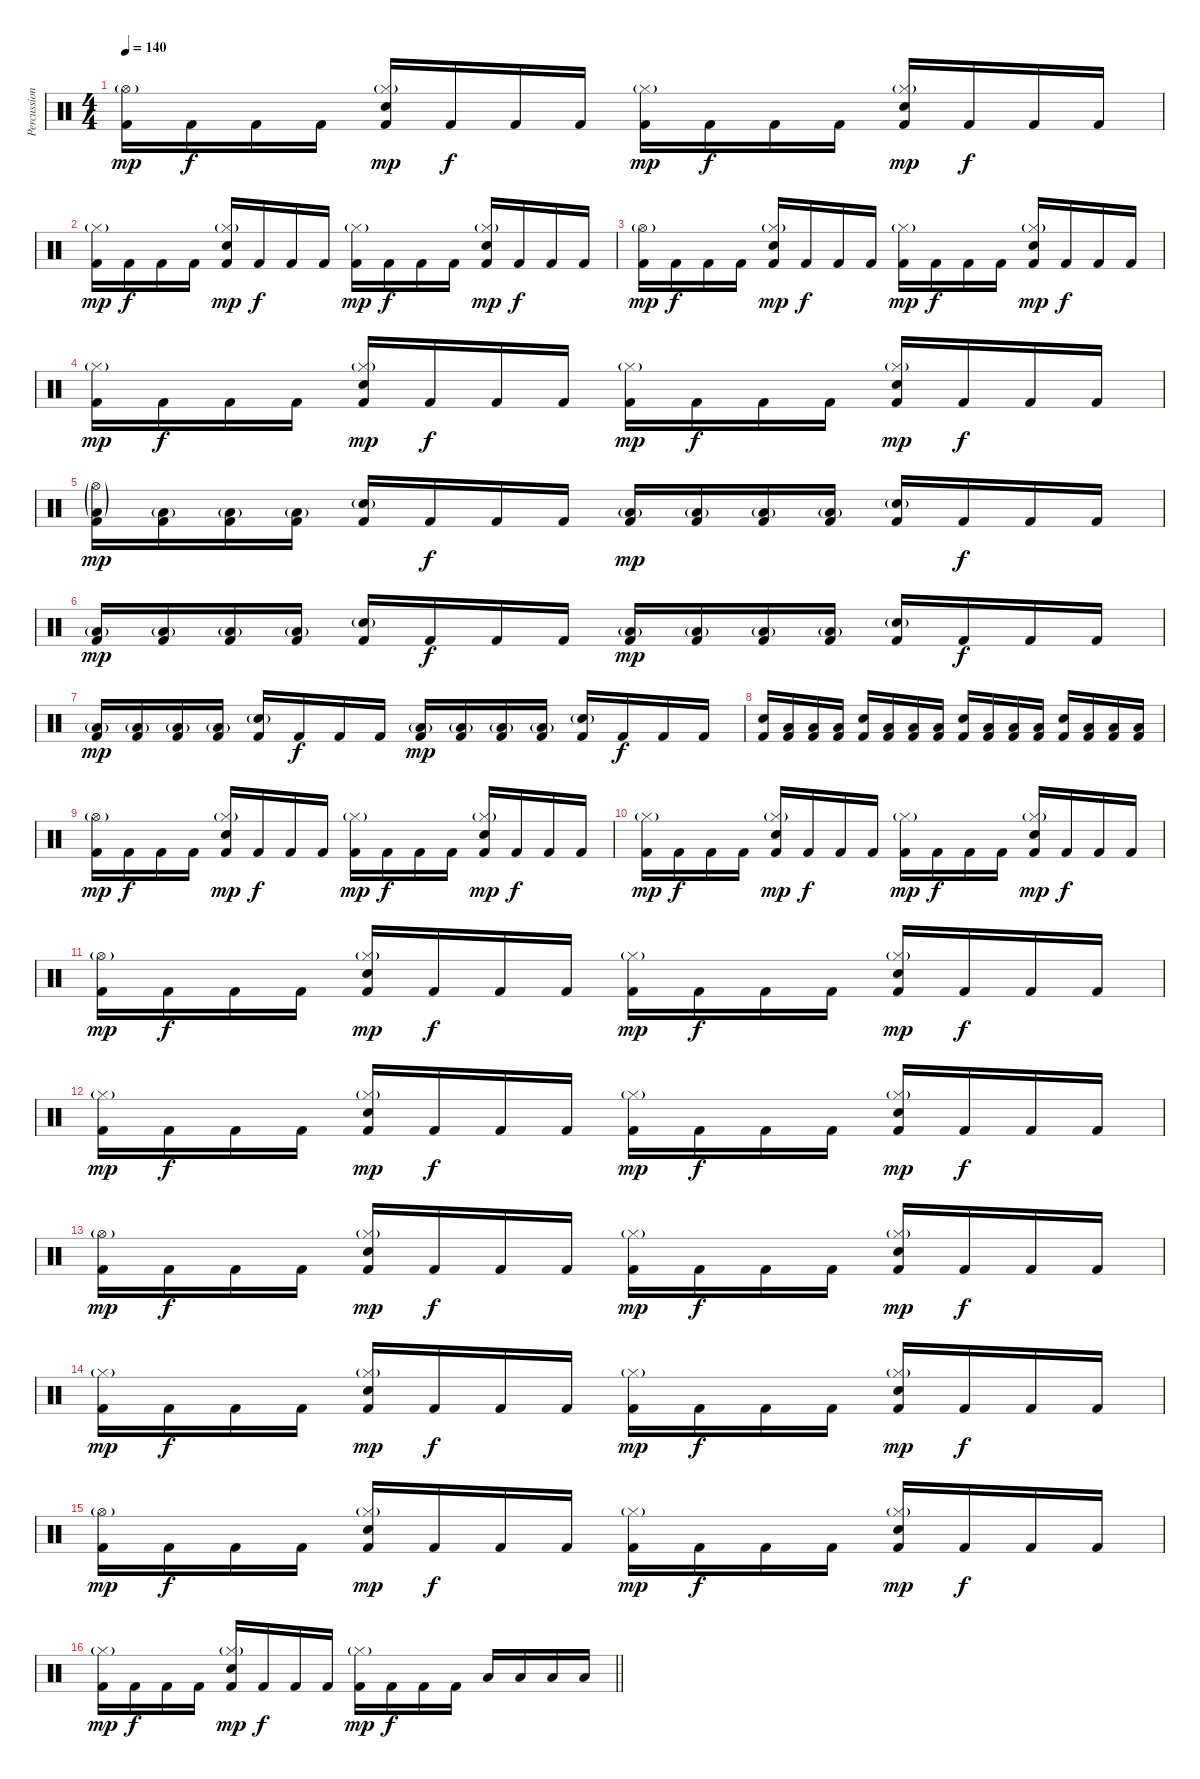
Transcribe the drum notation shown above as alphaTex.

\track ("Percussions" "Percussion") {instrument percussion}
\staff {score}
\articulation defaults
\ts (4 4)
\tempo 140
\clef neutral
\ks c
("Hi-Hat (open)"{g} "Kick (hit) 2").16{dy mp} "Kick (hit) 2".16{dy f} "Kick (hit) 2".16 "Kick (hit) 2".16 ("Hi-Hat (closed)"{g} "Electric Snare (hit)" "Kick (hit) 2").16{dy mp} "Kick (hit) 2".16{dy f} "Kick (hit) 2".16 "Kick (hit) 2".16 ("Hi-Hat (closed)"{g} "Kick (hit) 2").16{dy mp} "Kick (hit) 2".16{dy f} "Kick (hit) 2".16 "Kick (hit) 2".16 ("Hi-Hat (closed)"{g} "Electric Snare (hit)" "Kick (hit) 2").16{dy mp} "Kick (hit) 2".16{dy f} "Kick (hit) 2".16 "Kick (hit) 2".16 |
("Hi-Hat (closed)"{g} "Kick (hit) 2").16{dy mp} "Kick (hit) 2".16{dy f} "Kick (hit) 2".16 "Kick (hit) 2".16 ("Hi-Hat (closed)"{g} "Electric Snare (hit)" "Kick (hit) 2").16{dy mp} "Kick (hit) 2".16{dy f} "Kick (hit) 2".16 "Kick (hit) 2".16 ("Hi-Hat (closed)"{g} "Kick (hit) 2").16{dy mp} "Kick (hit) 2".16{dy f} "Kick (hit) 2".16 "Kick (hit) 2".16 ("Hi-Hat (closed)"{g} "Electric Snare (hit)" "Kick (hit) 2").16{dy mp} "Kick (hit) 2".16{dy f} "Kick (hit) 2".16 "Kick (hit) 2".16 |
("Hi-Hat (open)"{g} "Kick (hit) 2").16{dy mp} "Kick (hit) 2".16{dy f} "Kick (hit) 2".16 "Kick (hit) 2".16 ("Hi-Hat (closed)"{g} "Electric Snare (hit)" "Kick (hit) 2").16{dy mp} "Kick (hit) 2".16{dy f} "Kick (hit) 2".16 "Kick (hit) 2".16 ("Hi-Hat (closed)"{g} "Kick (hit) 2").16{dy mp} "Kick (hit) 2".16{dy f} "Kick (hit) 2".16 "Kick (hit) 2".16 ("Hi-Hat (closed)"{g} "Electric Snare (hit)" "Kick (hit) 2").16{dy mp} "Kick (hit) 2".16{dy f} "Kick (hit) 2".16 "Kick (hit) 2".16 |
("Hi-Hat (closed)"{g} "Kick (hit) 2").16{dy mp} "Kick (hit) 2".16{dy f} "Kick (hit) 2".16 "Kick (hit) 2".16 ("Hi-Hat (closed)"{g} "Electric Snare (hit)" "Kick (hit) 2").16{dy mp} "Kick (hit) 2".16{dy f} "Kick (hit) 2".16 "Kick (hit) 2".16 ("Hi-Hat (closed)"{g} "Kick (hit) 2").16{dy mp} "Kick (hit) 2".16{dy f} "Kick (hit) 2".16 "Kick (hit) 2".16 ("Hi-Hat (closed)"{g} "Electric Snare (hit)" "Kick (hit) 2").16{dy mp} "Kick (hit) 2".16{dy f} "Kick (hit) 2".16 "Kick (hit) 2".16 |
("Hi-Hat (open)"{g} "Low Floor Tom (hit)"{g} "Kick (hit) 2").16{dy mp} ("Low Floor Tom (hit)"{g} "Kick (hit) 2").16 ("Low Floor Tom (hit)"{g} "Kick (hit) 2").16 ("Low Floor Tom (hit)"{g} "Kick (hit) 2").16 ("Electric Snare (hit)"{g} "Kick (hit) 2").16 "Kick (hit) 2".16{dy f} "Kick (hit) 2".16 "Kick (hit) 2".16 ("Low Floor Tom (hit)"{g} "Kick (hit) 2").16{dy mp} ("Low Floor Tom (hit)"{g} "Kick (hit) 2").16 ("Low Floor Tom (hit)"{g} "Kick (hit) 2").16 ("Low Floor Tom (hit)"{g} "Kick (hit) 2").16 ("Electric Snare (hit)"{g} "Kick (hit) 2").16 "Kick (hit) 2".16{dy f} "Kick (hit) 2".16 "Kick (hit) 2".16 |
("Low Floor Tom (hit)"{g} "Kick (hit) 2").16{dy mp} ("Low Floor Tom (hit)"{g} "Kick (hit) 2").16 ("Low Floor Tom (hit)"{g} "Kick (hit) 2").16 ("Low Floor Tom (hit)"{g} "Kick (hit) 2").16 ("Electric Snare (hit)"{g} "Kick (hit) 2").16 "Kick (hit) 2".16{dy f} "Kick (hit) 2".16 "Kick (hit) 2".16 ("Low Floor Tom (hit)"{g} "Kick (hit) 2").16{dy mp} ("Low Floor Tom (hit)"{g} "Kick (hit) 2").16 ("Low Floor Tom (hit)"{g} "Kick (hit) 2").16 ("Low Floor Tom (hit)"{g} "Kick (hit) 2").16 ("Electric Snare (hit)"{g} "Kick (hit) 2").16 "Kick (hit) 2".16{dy f} "Kick (hit) 2".16 "Kick (hit) 2".16 |
("Low Floor Tom (hit)"{g} "Kick (hit) 2").16{dy mp} ("Low Floor Tom (hit)"{g} "Kick (hit) 2").16 ("Low Floor Tom (hit)"{g} "Kick (hit) 2").16 ("Low Floor Tom (hit)"{g} "Kick (hit) 2").16 ("Electric Snare (hit)"{g} "Kick (hit) 2").16 "Kick (hit) 2".16{dy f} "Kick (hit) 2".16 "Kick (hit) 2".16 ("Low Floor Tom (hit)"{g} "Kick (hit) 2").16{dy mp} ("Low Floor Tom (hit)"{g} "Kick (hit) 2").16 ("Low Floor Tom (hit)"{g} "Kick (hit) 2").16 ("Low Floor Tom (hit)"{g} "Kick (hit) 2").16 ("Electric Snare (hit)"{g} "Kick (hit) 2").16 "Kick (hit) 2".16{dy f} "Kick (hit) 2".16 "Kick (hit) 2".16 |
("Electric Snare (hit)" "Kick (hit) 2").16 ("Low Floor Tom (hit)" "Kick (hit) 2").16 ("Low Floor Tom (hit)" "Kick (hit) 2").16 ("Low Floor Tom (hit)" "Kick (hit) 2").16 ("Electric Snare (hit)" "Kick (hit) 2").16 ("Low Floor Tom (hit)" "Kick (hit) 2").16 ("Low Floor Tom (hit)" "Kick (hit) 2").16 ("Low Floor Tom (hit)" "Kick (hit) 2").16 ("Electric Snare (hit)" "Kick (hit) 2").16 ("Low Floor Tom (hit)" "Kick (hit) 2").16 ("Low Floor Tom (hit)" "Kick (hit) 2").16 ("Low Floor Tom (hit)" "Kick (hit) 2").16 ("Electric Snare (hit)" "Kick (hit) 2").16 ("Low Floor Tom (hit)" "Kick (hit) 2").16 ("Low Floor Tom (hit)" "Kick (hit) 2").16 ("Low Floor Tom (hit)" "Kick (hit) 2").16 |
("Hi-Hat (open)"{g} "Kick (hit) 2").16{dy mp} "Kick (hit) 2".16{dy f} "Kick (hit) 2".16 "Kick (hit) 2".16 ("Hi-Hat (closed)"{g} "Electric Snare (hit)" "Kick (hit) 2").16{dy mp} "Kick (hit) 2".16{dy f} "Kick (hit) 2".16 "Kick (hit) 2".16 ("Hi-Hat (closed)"{g} "Kick (hit) 2").16{dy mp} "Kick (hit) 2".16{dy f} "Kick (hit) 2".16 "Kick (hit) 2".16 ("Hi-Hat (closed)"{g} "Electric Snare (hit)" "Kick (hit) 2").16{dy mp} "Kick (hit) 2".16{dy f} "Kick (hit) 2".16 "Kick (hit) 2".16 |
("Hi-Hat (closed)"{g} "Kick (hit) 2").16{dy mp} "Kick (hit) 2".16{dy f} "Kick (hit) 2".16 "Kick (hit) 2".16 ("Hi-Hat (closed)"{g} "Electric Snare (hit)" "Kick (hit) 2").16{dy mp} "Kick (hit) 2".16{dy f} "Kick (hit) 2".16 "Kick (hit) 2".16 ("Hi-Hat (closed)"{g} "Kick (hit) 2").16{dy mp} "Kick (hit) 2".16{dy f} "Kick (hit) 2".16 "Kick (hit) 2".16 ("Hi-Hat (closed)"{g} "Electric Snare (hit)" "Kick (hit) 2").16{dy mp} "Kick (hit) 2".16{dy f} "Kick (hit) 2".16 "Kick (hit) 2".16 |
("Hi-Hat (open)"{g} "Kick (hit) 2").16{dy mp} "Kick (hit) 2".16{dy f} "Kick (hit) 2".16 "Kick (hit) 2".16 ("Hi-Hat (closed)"{g} "Electric Snare (hit)" "Kick (hit) 2").16{dy mp} "Kick (hit) 2".16{dy f} "Kick (hit) 2".16 "Kick (hit) 2".16 ("Hi-Hat (closed)"{g} "Kick (hit) 2").16{dy mp} "Kick (hit) 2".16{dy f} "Kick (hit) 2".16 "Kick (hit) 2".16 ("Hi-Hat (closed)"{g} "Electric Snare (hit)" "Kick (hit) 2").16{dy mp} "Kick (hit) 2".16{dy f} "Kick (hit) 2".16 "Kick (hit) 2".16 |
("Hi-Hat (closed)"{g} "Kick (hit) 2").16{dy mp} "Kick (hit) 2".16{dy f} "Kick (hit) 2".16 "Kick (hit) 2".16 ("Hi-Hat (closed)"{g} "Electric Snare (hit)" "Kick (hit) 2").16{dy mp} "Kick (hit) 2".16{dy f} "Kick (hit) 2".16 "Kick (hit) 2".16 ("Hi-Hat (closed)"{g} "Kick (hit) 2").16{dy mp} "Kick (hit) 2".16{dy f} "Kick (hit) 2".16 "Kick (hit) 2".16 ("Hi-Hat (closed)"{g} "Electric Snare (hit)" "Kick (hit) 2").16{dy mp} "Kick (hit) 2".16{dy f} "Kick (hit) 2".16 "Kick (hit) 2".16 |
("Hi-Hat (open)"{g} "Kick (hit) 2").16{dy mp} "Kick (hit) 2".16{dy f} "Kick (hit) 2".16 "Kick (hit) 2".16 ("Hi-Hat (closed)"{g} "Electric Snare (hit)" "Kick (hit) 2").16{dy mp} "Kick (hit) 2".16{dy f} "Kick (hit) 2".16 "Kick (hit) 2".16 ("Hi-Hat (closed)"{g} "Kick (hit) 2").16{dy mp} "Kick (hit) 2".16{dy f} "Kick (hit) 2".16 "Kick (hit) 2".16 ("Hi-Hat (closed)"{g} "Electric Snare (hit)" "Kick (hit) 2").16{dy mp} "Kick (hit) 2".16{dy f} "Kick (hit) 2".16 "Kick (hit) 2".16 |
("Hi-Hat (closed)"{g} "Kick (hit) 2").16{dy mp} "Kick (hit) 2".16{dy f} "Kick (hit) 2".16 "Kick (hit) 2".16 ("Hi-Hat (closed)"{g} "Electric Snare (hit)" "Kick (hit) 2").16{dy mp} "Kick (hit) 2".16{dy f} "Kick (hit) 2".16 "Kick (hit) 2".16 ("Hi-Hat (closed)"{g} "Kick (hit) 2").16{dy mp} "Kick (hit) 2".16{dy f} "Kick (hit) 2".16 "Kick (hit) 2".16 ("Hi-Hat (closed)"{g} "Electric Snare (hit)" "Kick (hit) 2").16{dy mp} "Kick (hit) 2".16{dy f} "Kick (hit) 2".16 "Kick (hit) 2".16 |
("Hi-Hat (open)"{g} "Kick (hit) 2").16{dy mp} "Kick (hit) 2".16{dy f} "Kick (hit) 2".16 "Kick (hit) 2".16 ("Hi-Hat (closed)"{g} "Electric Snare (hit)" "Kick (hit) 2").16{dy mp} "Kick (hit) 2".16{dy f} "Kick (hit) 2".16 "Kick (hit) 2".16 ("Hi-Hat (closed)"{g} "Kick (hit) 2").16{dy mp} "Kick (hit) 2".16{dy f} "Kick (hit) 2".16 "Kick (hit) 2".16 ("Hi-Hat (closed)"{g} "Electric Snare (hit)" "Kick (hit) 2").16{dy mp} "Kick (hit) 2".16{dy f} "Kick (hit) 2".16 "Kick (hit) 2".16 |
\barLineRight lightlight
("Hi-Hat (closed)"{g} "Kick (hit) 2").16{dy mp} "Kick (hit) 2".16{dy f} "Kick (hit) 2".16 "Kick (hit) 2".16 ("Hi-Hat (closed)"{g} "Electric Snare (hit)" "Kick (hit) 2").16{dy mp} "Kick (hit) 2".16{dy f} "Kick (hit) 2".16 "Kick (hit) 2".16 ("Hi-Hat (closed)"{g} "Kick (hit) 2").16{dy mp} "Kick (hit) 2".16{dy f} "Kick (hit) 2".16 "Kick (hit) 2".16 "Low Tom (hit)".16 "Low Tom (hit)".16 "Low Tom (hit)".16 "Low Tom (hit)".16
